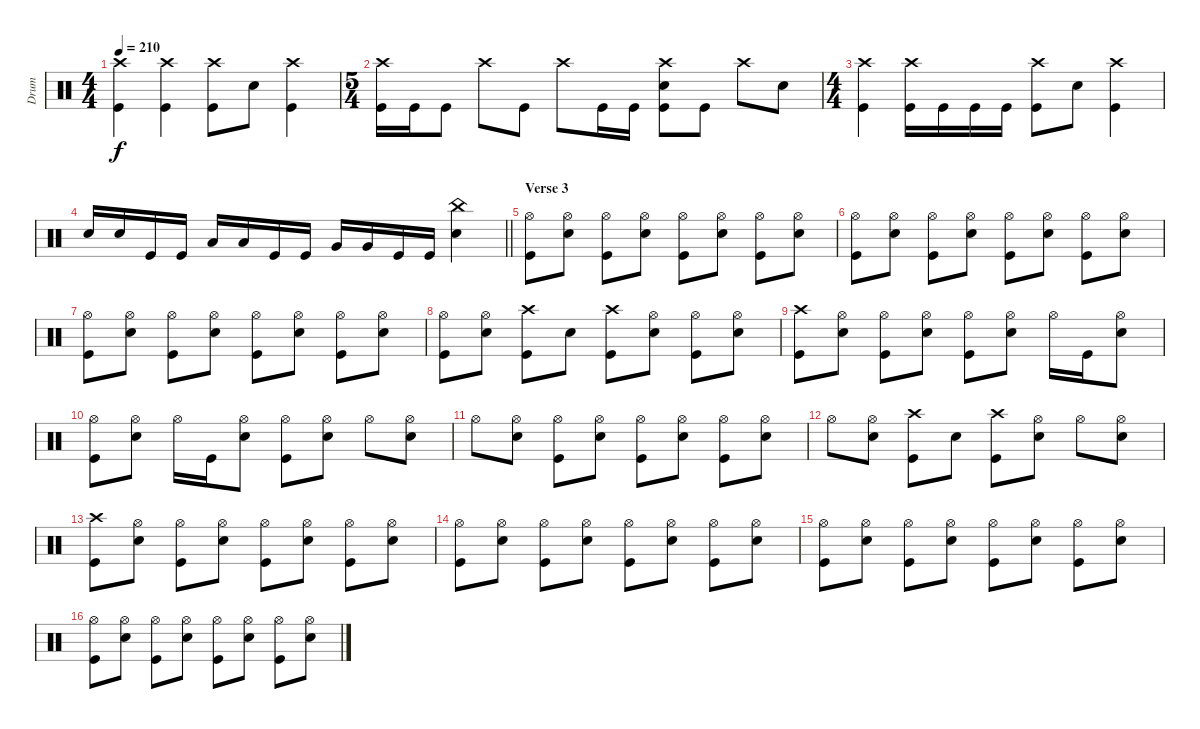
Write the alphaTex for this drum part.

\track ("Drum" "Drum") {instrument percussion}
\staff {score}
\articulation defaults
\ts (4 4)
\tempo 210
\clef neutral
\ks c
("Crash high (hit)" "Kick (hit)").4{dy f} ("Crash high (hit)" "Kick (hit)").4 ("Crash high (hit)" "Kick (hit)").8 "Snare (hit) 2".8 ("Crash high (hit)" "Kick (hit)").4 |
\ts (5 4)
("Crash high (hit)" "Kick (hit)").16 "Kick (hit)".16 "Kick (hit)".8 "Crash high (hit)".8 "Kick (hit)".8 "Crash high (hit)".8 "Kick (hit)".16 "Kick (hit)".16 ("Crash high (hit)" "Snare (hit) 2" "Kick (hit)").8 "Kick (hit)".8 "Crash high (hit)".8 "Snare (hit) 2".8 |
\ts (4 4)
("Crash high (hit)" "Kick (hit)").4 ("Crash high (hit)" "Kick (hit)").16 "Kick (hit)".16 "Kick (hit)".16 "Kick (hit)".16 ("Crash high (hit)" "Kick (hit)").8 "Snare (hit) 2".8 ("Crash high (hit)" "Kick (hit)").4 |
\barLineRight lightlight "Snare (hit) 2".16 "Snare (hit) 2".16 "Kick (hit)".16 "Kick (hit)".16 "Low Tom (hit)".16 "Low Tom (hit)".16 "Kick (hit)".16 "Kick (hit)".16 "Very Low Tom (hit)".16 "Very Low Tom (hit)".16 "Kick (hit)".16 "Kick (hit)".16
("China (hit)" "Snare (hit) 2").4 |
\section ("" "Verse 3")
("Hi-Hat (open)" "Kick (hit)").8 ("Hi-Hat (open)" "Snare (hit) 2").8 ("Hi-Hat (open)" "Kick (hit)").8 ("Hi-Hat (open)" "Snare (hit) 2").8 ("Hi-Hat (open)" "Kick (hit)").8 ("Hi-Hat (open)" "Snare (hit) 2").8 ("Hi-Hat (open)" "Kick (hit)").8 ("Hi-Hat (open)" "Snare (hit) 2").8 |
("Hi-Hat (open)" "Kick (hit)").8 ("Hi-Hat (open)" "Snare (hit) 2").8 ("Hi-Hat (open)" "Kick (hit)").8 ("Hi-Hat (open)" "Snare (hit) 2").8 ("Hi-Hat (open)" "Kick (hit)").8 ("Hi-Hat (open)" "Snare (hit) 2").8 ("Hi-Hat (open)" "Kick (hit)").8 ("Hi-Hat (open)" "Snare (hit) 2").8 |
("Hi-Hat (open)" "Kick (hit)").8 ("Hi-Hat (open)" "Snare (hit) 2").8 ("Hi-Hat (open)" "Kick (hit)").8 ("Hi-Hat (open)" "Snare (hit) 2").8 ("Hi-Hat (open)" "Kick (hit)").8 ("Hi-Hat (open)" "Snare (hit) 2").8 ("Hi-Hat (open)" "Kick (hit)").8 ("Hi-Hat (open)" "Snare (hit) 2").8 |
("Hi-Hat (open)" "Kick (hit)").8 ("Hi-Hat (open)" "Snare (hit) 2").8 ("Crash high (hit)" "Kick (hit)").8 "Snare (hit) 2".8 ("Crash high (hit)" "Kick (hit)").8 ("Hi-Hat (open)" "Snare (hit) 2").8 ("Hi-Hat (open)" "Kick (hit)").8 ("Hi-Hat (open)" "Snare (hit) 2").8 |
("Crash high (hit)" "Kick (hit)").8 ("Hi-Hat (open)" "Snare (hit) 2").8 ("Hi-Hat (open)" "Kick (hit)").8 ("Hi-Hat (open)" "Snare (hit) 2").8 ("Hi-Hat (open)" "Kick (hit)").8 ("Hi-Hat (open)" "Snare (hit) 2").8 "Hi-Hat (open)".16 "Kick (hit)".16 ("Hi-Hat (open)" "Snare (hit) 2").8 |
("Hi-Hat (open)" "Kick (hit)").8 ("Hi-Hat (open)" "Snare (hit) 2").8 "Hi-Hat (open)".16 "Kick (hit)".16 ("Hi-Hat (open)" "Snare (hit) 2").8 ("Hi-Hat (open)" "Kick (hit)").8 ("Hi-Hat (open)" "Snare (hit) 2").8 "Hi-Hat (open)".8 ("Hi-Hat (open)" "Snare (hit) 2").8 |
"Hi-Hat (open)".8 ("Hi-Hat (open)" "Snare (hit) 2").8 ("Hi-Hat (open)" "Kick (hit)").8 ("Hi-Hat (open)" "Snare (hit) 2").8 ("Hi-Hat (open)" "Kick (hit)").8 ("Hi-Hat (open)" "Snare (hit) 2").8 ("Hi-Hat (open)" "Kick (hit)").8 ("Hi-Hat (open)" "Snare (hit) 2").8 |
"Hi-Hat (open)".8 ("Hi-Hat (open)" "Snare (hit) 2").8 ("Crash high (hit)" "Kick (hit)").8 "Snare (hit) 2".8 ("Crash high (hit)" "Kick (hit)").8 ("Hi-Hat (open)" "Snare (hit) 2").8 "Hi-Hat (open)".8 ("Hi-Hat (open)" "Snare (hit) 2").8 |
("Crash high (hit)" "Kick (hit)").8 ("Hi-Hat (open)" "Snare (hit) 2").8 ("Hi-Hat (open)" "Kick (hit)").8 ("Hi-Hat (open)" "Snare (hit) 2").8 ("Hi-Hat (open)" "Kick (hit)").8 ("Hi-Hat (open)" "Snare (hit) 2").8 ("Hi-Hat (open)" "Kick (hit)").8 ("Hi-Hat (open)" "Snare (hit) 2").8 |
("Hi-Hat (open)" "Kick (hit)").8 ("Hi-Hat (open)" "Snare (hit) 2").8 ("Hi-Hat (open)" "Kick (hit)").8 ("Hi-Hat (open)" "Snare (hit) 2").8 ("Hi-Hat (open)" "Kick (hit)").8 ("Hi-Hat (open)" "Snare (hit) 2").8 ("Hi-Hat (open)" "Kick (hit)").8 ("Hi-Hat (open)" "Snare (hit) 2").8 |
("Hi-Hat (open)" "Kick (hit)").8 ("Hi-Hat (open)" "Snare (hit) 2").8 ("Hi-Hat (open)" "Kick (hit)").8 ("Hi-Hat (open)" "Snare (hit) 2").8 ("Hi-Hat (open)" "Kick (hit)").8 ("Hi-Hat (open)" "Snare (hit) 2").8 ("Hi-Hat (open)" "Kick (hit)").8 ("Hi-Hat (open)" "Snare (hit) 2").8 |
("Hi-Hat (open)" "Kick (hit)").8 ("Hi-Hat (open)" "Snare (hit) 2").8 ("Hi-Hat (open)" "Kick (hit)").8 ("Hi-Hat (open)" "Snare (hit) 2").8 ("Hi-Hat (open)" "Kick (hit)").8 ("Hi-Hat (open)" "Snare (hit) 2").8 ("Hi-Hat (open)" "Kick (hit)").8 ("Hi-Hat (open)" "Snare (hit) 2").8
